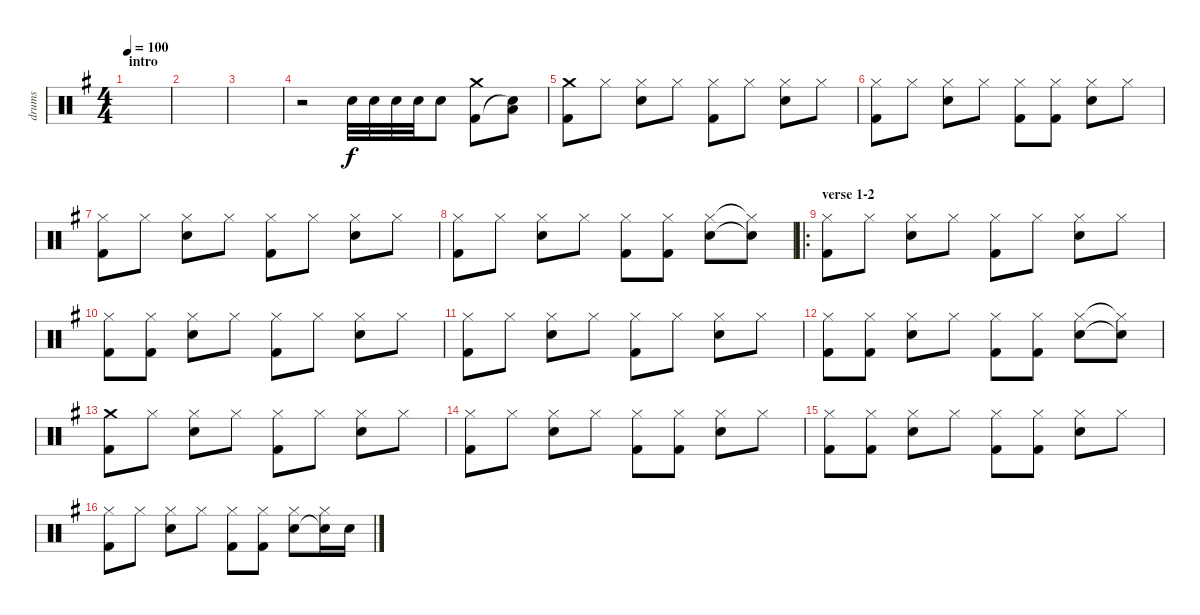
\track ("drums" "drums") {instrument percussion}
\staff {score}
\articulation defaults
\ts (4 4)
\section ("" "intro")
\tempo 100
\clef neutral
\ks g
|
|
|
r.2 "Snare (hit) 2".32 "Snare (hit) 2".32 "Snare (hit) 2".32 "Snare (hit) 2".32 "Snare (hit) 2".8 ("Crash medium (hit)" "Kick (hit) 2").8 ("Low Tom (hit)" "Snare (hit)"{t}).8 |
("Crash medium (hit)" "Kick (hit) 2").8 "Hi-Hat (closed)".8 ("Hi-Hat (closed)" "Snare (hit) 2").8 "Hi-Hat (closed)".8 ("Hi-Hat (closed)" "Kick (hit) 2").8 "Hi-Hat (closed)".8 ("Hi-Hat (closed)" "Snare (hit) 2").8 "Hi-Hat (closed)".8 |
("Hi-Hat (closed)" "Kick (hit) 2").8 "Hi-Hat (closed)".8 ("Hi-Hat (closed)" "Snare (hit) 2").8 "Hi-Hat (closed)".8 ("Hi-Hat (closed)" "Kick (hit) 2").8 ("Hi-Hat (closed)" "Kick (hit) 2").8 ("Hi-Hat (closed)" "Snare (hit) 2").8 "Hi-Hat (closed)".8 |
("Hi-Hat (closed)" "Kick (hit) 2").8 "Hi-Hat (closed)".8 ("Hi-Hat (closed)" "Snare (hit) 2").8 "Hi-Hat (closed)".8 ("Hi-Hat (closed)" "Kick (hit) 2").8 "Hi-Hat (closed)".8 ("Hi-Hat (closed)" "Snare (hit) 2").8 "Hi-Hat (closed)".8 |
("Hi-Hat (closed)" "Kick (hit) 2").8 "Hi-Hat (closed)".8 ("Hi-Hat (closed)" "Snare (hit) 2").8 "Hi-Hat (closed)".8 ("Hi-Hat (closed)" "Kick (hit) 2").8 ("Hi-Hat (closed)" "Kick (hit) 2").8 ("Hi-Hat (closed)" "Snare (hit) 2").8 ("Hi-Hat (closed)"{t} "Snare (hit)"{t}).8 |
\ro
\section ("" "verse 1-2")
("Hi-Hat (closed)" "Kick (hit) 2").8 "Hi-Hat (closed)".8 ("Hi-Hat (closed)" "Snare (hit) 2").8 "Hi-Hat (closed)".8 ("Hi-Hat (closed)" "Kick (hit) 2").8 "Hi-Hat (closed)".8 ("Hi-Hat (closed)" "Snare (hit) 2").8 "Hi-Hat (closed)".8 |
("Hi-Hat (closed)" "Kick (hit) 2").8 ("Hi-Hat (closed)" "Kick (hit) 2").8 ("Hi-Hat (closed)" "Snare (hit) 2").8 "Hi-Hat (closed)".8 ("Hi-Hat (closed)" "Kick (hit) 2").8 "Hi-Hat (closed)".8 ("Hi-Hat (closed)" "Snare (hit) 2").8 "Hi-Hat (closed)".8 |
("Hi-Hat (closed)" "Kick (hit) 2").8 "Hi-Hat (closed)".8 ("Hi-Hat (closed)" "Snare (hit) 2").8 "Hi-Hat (closed)".8 ("Hi-Hat (closed)" "Kick (hit) 2").8 "Hi-Hat (closed)".8 ("Hi-Hat (closed)" "Snare (hit) 2").8 "Hi-Hat (closed)".8 |
("Hi-Hat (closed)" "Kick (hit) 2").8 ("Hi-Hat (closed)" "Kick (hit) 2").8 ("Hi-Hat (closed)" "Snare (hit) 2").8 "Hi-Hat (closed)".8 ("Hi-Hat (closed)" "Kick (hit) 2").8 ("Hi-Hat (closed)" "Kick (hit) 2").8 ("Hi-Hat (closed)" "Snare (hit) 2").8 ("Hi-Hat (closed)"{t} "Snare (hit)"{t}).8 |
("Crash medium (hit)" "Kick (hit) 2").8 "Hi-Hat (closed)".8 ("Hi-Hat (closed)" "Snare (hit) 2").8 "Hi-Hat (closed)".8 ("Hi-Hat (closed)" "Kick (hit) 2").8 "Hi-Hat (closed)".8 ("Hi-Hat (closed)" "Snare (hit) 2").8 "Hi-Hat (closed)".8 |
("Hi-Hat (closed)" "Kick (hit) 2").8 "Hi-Hat (closed)".8 ("Hi-Hat (closed)" "Snare (hit) 2").8 "Hi-Hat (closed)".8 ("Hi-Hat (closed)" "Kick (hit) 2").8 ("Hi-Hat (closed)" "Kick (hit) 2").8 ("Hi-Hat (closed)" "Snare (hit) 2").8 "Hi-Hat (closed)".8 |
("Hi-Hat (closed)" "Kick (hit) 2").8 ("Hi-Hat (closed)" "Kick (hit) 2").8 ("Hi-Hat (closed)" "Snare (hit) 2").8 "Hi-Hat (closed)".8 ("Hi-Hat (closed)" "Kick (hit) 2").8 ("Hi-Hat (closed)" "Kick (hit) 2").8 ("Hi-Hat (closed)" "Snare (hit) 2").8 "Hi-Hat (closed)".8 |
("Hi-Hat (closed)" "Kick (hit) 2").8 "Hi-Hat (closed)".8 ("Hi-Hat (closed)" "Snare (hit) 2").8 "Hi-Hat (closed)".8 ("Hi-Hat (closed)" "Kick (hit) 2").8 ("Hi-Hat (closed)" "Kick (hit) 2").8 ("Hi-Hat (closed)" "Snare (hit) 2").8 ("Hi-Hat (closed)" "Snare (hit)"{t}).16 "Snare (hit) 2".16
